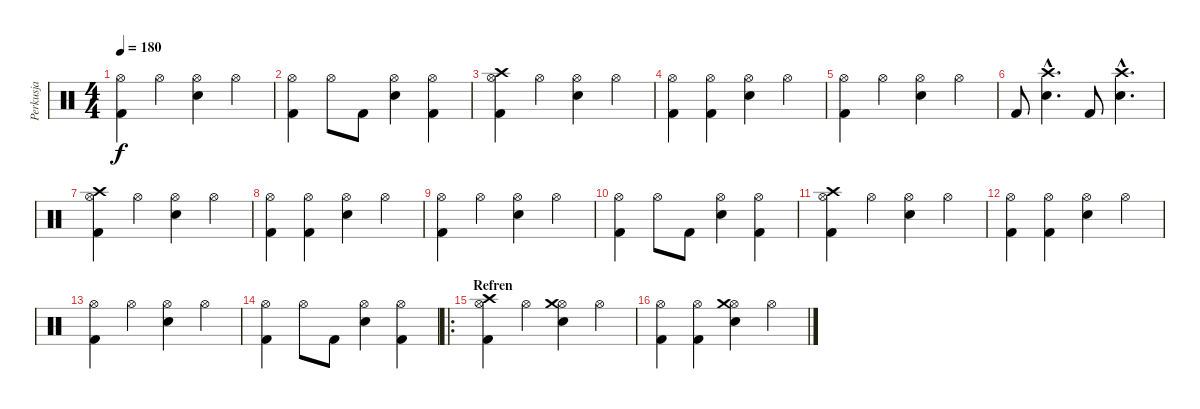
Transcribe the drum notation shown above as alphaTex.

\track ("Perkusja" "Perkusja") {instrument percussion}
\staff {score}
\articulation defaults
\ts (4 4)
\tempo 180
\clef neutral
\ks c
("Hi-Hat (open)" "Kick (hit) 2").4{dy f} "Hi-Hat (open)".4 ("Hi-Hat (open)" "Snare (hit) 2").4 "Hi-Hat (open)".4 |
("Hi-Hat (open)" "Kick (hit) 2").4 "Hi-Hat (open)".8 "Kick (hit) 2".8 ("Hi-Hat (open)" "Snare (hit) 2").4 ("Hi-Hat (open)" "Kick (hit) 2").4 |
("Hi-Hat (open)" "Kick (hit) 2" "Crash high (hit)").4 "Hi-Hat (open)".4 ("Hi-Hat (open)" "Snare (hit) 2").4 "Hi-Hat (open)".4 |
("Hi-Hat (open)" "Kick (hit) 2").4 ("Hi-Hat (open)" "Kick (hit) 2").4 ("Hi-Hat (open)" "Snare (hit) 2").4 "Hi-Hat (open)".4 |
("Hi-Hat (open)" "Kick (hit) 2").4 "Hi-Hat (open)".4 ("Hi-Hat (open)" "Snare (hit) 2").4 "Hi-Hat (open)".4 |
"Kick (hit) 2".8 ("Snare (hit) 2"{hac} "Crash high (hit)"{hac}).4{d} "Kick (hit) 2".8 ("Snare (hit) 2"{hac} "Crash high (hit)"{hac}).4{d} |
("Hi-Hat (open)" "Kick (hit) 2" "Crash high (hit)").4 "Hi-Hat (open)".4 ("Hi-Hat (open)" "Snare (hit) 2").4 "Hi-Hat (open)".4 |
("Hi-Hat (open)" "Kick (hit) 2").4 ("Hi-Hat (open)" "Kick (hit) 2").4 ("Hi-Hat (open)" "Snare (hit) 2").4 "Hi-Hat (open)".4 |
("Hi-Hat (open)" "Kick (hit) 2").4 "Hi-Hat (open)".4 ("Hi-Hat (open)" "Snare (hit) 2").4 "Hi-Hat (open)".4 |
("Hi-Hat (open)" "Kick (hit) 2").4 "Hi-Hat (open)".8 "Kick (hit) 2".8 ("Hi-Hat (open)" "Snare (hit) 2").4 ("Hi-Hat (open)" "Kick (hit) 2").4 |
("Hi-Hat (open)" "Kick (hit) 2" "Crash high (hit)").4 "Hi-Hat (open)".4 ("Hi-Hat (open)" "Snare (hit) 2").4 "Hi-Hat (open)".4 |
("Hi-Hat (open)" "Kick (hit) 2").4 ("Hi-Hat (open)" "Kick (hit) 2").4 ("Hi-Hat (open)" "Snare (hit) 2").4 "Hi-Hat (open)".4 |
("Hi-Hat (open)" "Kick (hit) 2").4 "Hi-Hat (open)".4 ("Hi-Hat (open)" "Snare (hit) 2").4 "Hi-Hat (open)".4 |
("Hi-Hat (open)" "Kick (hit) 2").4 "Hi-Hat (open)".8 "Kick (hit) 2".8 ("Hi-Hat (open)" "Snare (hit) 2").4 ("Hi-Hat (open)" "Kick (hit) 2").4 |
\ro
\section ("" "Refren")
("Hi-Hat (open)" "Kick (hit) 2" "Crash high (hit)").4 "Hi-Hat (open)".4 ("Hi-Hat (open)" "Snare (hit) 2" "Crash medium (hit)").4 "Hi-Hat (open)".4 |
("Hi-Hat (open)" "Kick (hit) 2").4 ("Hi-Hat (open)" "Kick (hit) 2").4 ("Hi-Hat (open)" "Snare (hit) 2" "Crash medium (hit)").4 "Hi-Hat (open)".4
